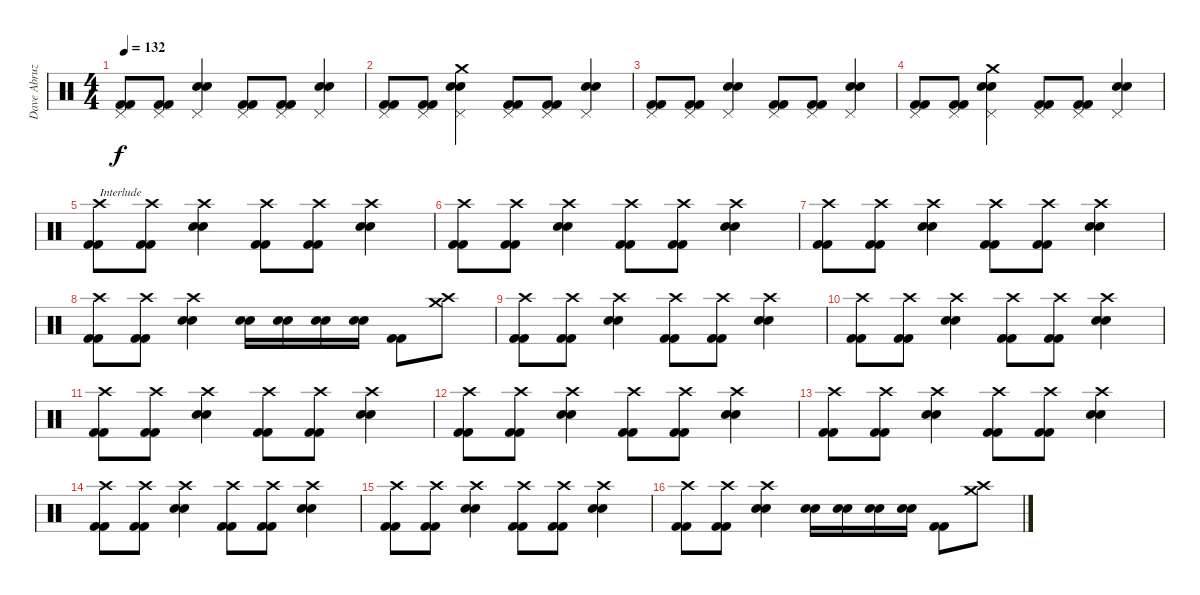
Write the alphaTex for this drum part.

\track ("Dave Abruzzesse" "Dave Abruz") {instrument percussion}
\staff {score}
\articulation defaults
\ts (4 4)
\tempo 132
\clef neutral
\ks c
("Pedal Hi-Hat (hit)" "Kick (hit) 2" "Kick (hit) 2").8{dy f} ("Pedal Hi-Hat (hit)" "Kick (hit) 2" "Kick (hit) 2").8 ("Pedal Hi-Hat (hit)" "Snare (hit) 2" "Snare (hit) 2").4 ("Pedal Hi-Hat (hit)" "Kick (hit) 2" "Kick (hit) 2").8 ("Pedal Hi-Hat (hit)" "Kick (hit) 2" "Kick (hit) 2").8 ("Pedal Hi-Hat (hit)" "Snare (hit) 2" "Snare (hit) 2").4 |
("Pedal Hi-Hat (hit)" "Kick (hit) 2" "Kick (hit) 2").8 ("Pedal Hi-Hat (hit)" "Kick (hit) 2" "Kick (hit) 2").8 ("Crash medium (hit)" "Pedal Hi-Hat (hit)" "Snare (hit) 2" "Snare (hit) 2").4 ("Pedal Hi-Hat (hit)" "Kick (hit) 2" "Kick (hit) 2").8 ("Pedal Hi-Hat (hit)" "Kick (hit) 2" "Kick (hit) 2").8 ("Pedal Hi-Hat (hit)" "Snare (hit) 2" "Snare (hit) 2").4 |
("Pedal Hi-Hat (hit)" "Kick (hit) 2" "Kick (hit) 2").8 ("Pedal Hi-Hat (hit)" "Kick (hit) 2" "Kick (hit) 2").8 ("Pedal Hi-Hat (hit)" "Snare (hit) 2" "Snare (hit) 2").4 ("Pedal Hi-Hat (hit)" "Kick (hit) 2" "Kick (hit) 2").8 ("Pedal Hi-Hat (hit)" "Kick (hit) 2" "Kick (hit) 2").8 ("Pedal Hi-Hat (hit)" "Snare (hit) 2" "Snare (hit) 2").4 |
("Pedal Hi-Hat (hit)" "Kick (hit) 2" "Kick (hit) 2").8 ("Pedal Hi-Hat (hit)" "Kick (hit) 2" "Kick (hit) 2").8 ("Crash medium (hit)" "Pedal Hi-Hat (hit)" "Snare (hit) 2" "Snare (hit) 2").4 ("Pedal Hi-Hat (hit)" "Kick (hit) 2" "Kick (hit) 2").8 ("Pedal Hi-Hat (hit)" "Kick (hit) 2" "Kick (hit) 2").8 ("Pedal Hi-Hat (hit)" "Snare (hit) 2" "Snare (hit) 2").4 |
("Crash high (hit)" "Kick (hit) 2" "Kick (hit) 2").8{txt "Interlude"} ("Crash high (hit)" "Kick (hit) 2" "Kick (hit) 2").8 ("Crash high (hit)" "Snare (hit) 2" "Snare (hit) 2").4 ("Crash high (hit)" "Kick (hit) 2" "Kick (hit) 2").8 ("Crash high (hit)" "Kick (hit) 2" "Kick (hit) 2").8 ("Crash high (hit)" "Snare (hit) 2" "Snare (hit) 2").4 |
("Crash high (hit)" "Kick (hit) 2" "Kick (hit) 2").8 ("Crash high (hit)" "Kick (hit) 2" "Kick (hit) 2").8 ("Crash high (hit)" "Snare (hit) 2" "Snare (hit) 2").4 ("Crash high (hit)" "Kick (hit) 2" "Kick (hit) 2").8 ("Crash high (hit)" "Kick (hit) 2" "Kick (hit) 2").8 ("Crash high (hit)" "Snare (hit) 2" "Snare (hit) 2").4 |
("Crash high (hit)" "Kick (hit) 2" "Kick (hit) 2").8 ("Crash high (hit)" "Kick (hit) 2" "Kick (hit) 2").8 ("Crash high (hit)" "Snare (hit) 2" "Snare (hit) 2").4 ("Crash high (hit)" "Kick (hit) 2" "Kick (hit) 2").8 ("Crash high (hit)" "Kick (hit) 2" "Kick (hit) 2").8 ("Crash high (hit)" "Snare (hit) 2" "Snare (hit) 2").4 |
("Crash high (hit)" "Kick (hit) 2" "Kick (hit) 2").8 ("Crash high (hit)" "Kick (hit) 2" "Kick (hit) 2").8 ("Crash high (hit)" "Snare (hit) 2" "Snare (hit) 2").4 ("Snare (hit) 2" "Snare (hit) 2").16 ("Snare (hit) 2" "Snare (hit) 2").16 ("Snare (hit) 2" "Snare (hit) 2").16 ("Snare (hit) 2" "Snare (hit) 2").16 ("Kick (hit) 2" "Kick (hit) 2").8 ("Crash high (hit)" "Crash medium (hit)").8 |
("Crash high (hit)" "Kick (hit) 2" "Kick (hit) 2").8 ("Crash high (hit)" "Kick (hit) 2" "Kick (hit) 2").8 ("Crash high (hit)" "Snare (hit) 2" "Snare (hit) 2").4 ("Crash high (hit)" "Kick (hit) 2" "Kick (hit) 2").8 ("Crash high (hit)" "Kick (hit) 2" "Kick (hit) 2").8 ("Crash high (hit)" "Snare (hit) 2" "Snare (hit) 2").4 |
("Crash high (hit)" "Kick (hit) 2" "Kick (hit) 2").8 ("Crash high (hit)" "Kick (hit) 2" "Kick (hit) 2").8 ("Crash high (hit)" "Snare (hit) 2" "Snare (hit) 2").4 ("Crash high (hit)" "Kick (hit) 2" "Kick (hit) 2").8 ("Crash high (hit)" "Kick (hit) 2" "Kick (hit) 2").8 ("Crash high (hit)" "Snare (hit) 2" "Snare (hit) 2").4 |
("Crash high (hit)" "Kick (hit) 2" "Kick (hit) 2").8 ("Crash high (hit)" "Kick (hit) 2" "Kick (hit) 2").8 ("Crash high (hit)" "Snare (hit) 2" "Snare (hit) 2").4 ("Crash high (hit)" "Kick (hit) 2" "Kick (hit) 2").8 ("Crash high (hit)" "Kick (hit) 2" "Kick (hit) 2").8 ("Crash high (hit)" "Snare (hit) 2" "Snare (hit) 2").4 |
("Crash high (hit)" "Kick (hit) 2" "Kick (hit) 2").8 ("Crash high (hit)" "Kick (hit) 2" "Kick (hit) 2").8 ("Crash high (hit)" "Snare (hit) 2" "Snare (hit) 2").4 ("Crash high (hit)" "Kick (hit) 2" "Kick (hit) 2").8 ("Crash high (hit)" "Kick (hit) 2" "Kick (hit) 2").8 ("Crash high (hit)" "Snare (hit) 2" "Snare (hit) 2").4 |
("Crash high (hit)" "Kick (hit) 2" "Kick (hit) 2").8 ("Crash high (hit)" "Kick (hit) 2" "Kick (hit) 2").8 ("Crash high (hit)" "Snare (hit) 2" "Snare (hit) 2").4 ("Crash high (hit)" "Kick (hit) 2" "Kick (hit) 2").8 ("Crash high (hit)" "Kick (hit) 2" "Kick (hit) 2").8 ("Crash high (hit)" "Snare (hit) 2" "Snare (hit) 2").4 |
("Crash high (hit)" "Kick (hit) 2" "Kick (hit) 2").8 ("Crash high (hit)" "Kick (hit) 2" "Kick (hit) 2").8 ("Crash high (hit)" "Snare (hit) 2" "Snare (hit) 2").4 ("Crash high (hit)" "Kick (hit) 2" "Kick (hit) 2").8 ("Crash high (hit)" "Kick (hit) 2" "Kick (hit) 2").8 ("Crash high (hit)" "Snare (hit) 2" "Snare (hit) 2").4 |
("Crash high (hit)" "Kick (hit) 2" "Kick (hit) 2").8 ("Crash high (hit)" "Kick (hit) 2" "Kick (hit) 2").8 ("Crash high (hit)" "Snare (hit) 2" "Snare (hit) 2").4 ("Crash high (hit)" "Kick (hit) 2" "Kick (hit) 2").8 ("Crash high (hit)" "Kick (hit) 2" "Kick (hit) 2").8 ("Crash high (hit)" "Snare (hit) 2" "Snare (hit) 2").4 |
("Crash high (hit)" "Kick (hit) 2" "Kick (hit) 2").8 ("Crash high (hit)" "Kick (hit) 2" "Kick (hit) 2").8 ("Crash high (hit)" "Snare (hit) 2" "Snare (hit) 2").4 ("Snare (hit) 2" "Snare (hit) 2").16 ("Snare (hit) 2" "Snare (hit) 2").16 ("Snare (hit) 2" "Snare (hit) 2").16 ("Snare (hit) 2" "Snare (hit) 2").16 ("Kick (hit) 2" "Kick (hit) 2").8 ("Crash high (hit)" "Crash medium (hit)").8
